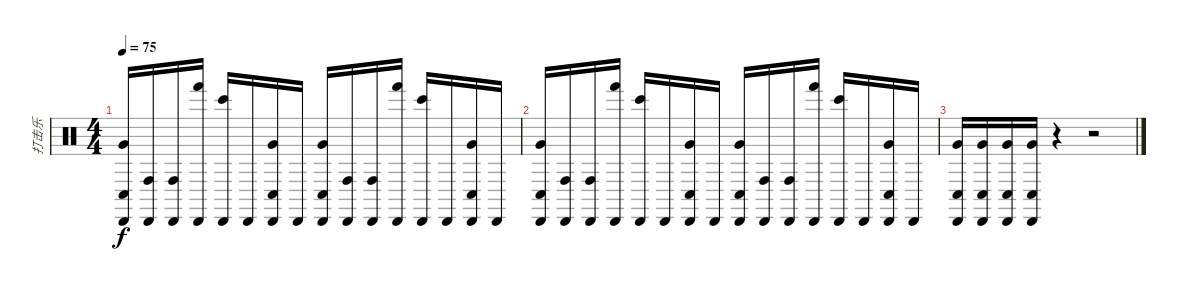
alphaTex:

\track ("打击乐" "打击乐") {instrument percussion}
\staff {score}
\articulation defaults
\ts (4 4)
\tempo 75
\clef neutral
\ks c
("Conga low (hit)" "Very Low Tom (hit)" "Cabasa (hit)").16{dy f} ("Conga high (hit)" "Cabasa (hit)").16 ("Conga high (hit)" "Cabasa (hit)").16 ("Hand (hit)" "Cabasa (hit)").16 ("Bongo High (hit)" "Cabasa (hit)").16 "Cabasa (hit)".16 ("Conga low (hit)" "Very Low Tom (hit)" "Cabasa (hit)").16 "Cabasa (hit)".16 ("Conga low (hit)" "Very Low Tom (hit)" "Cabasa (hit)").16 ("Conga high (hit)" "Cabasa (hit)").16 ("Conga high (hit)" "Cabasa (hit)").16 ("Hand (hit)" "Cabasa (hit)").16 ("Bongo High (hit)" "Cabasa (hit)").16 "Cabasa (hit)".16 ("Conga low (hit)" "Very Low Tom (hit)" "Cabasa (hit)").16 "Cabasa (hit)".16 |
("Conga low (hit)" "Very Low Tom (hit)" "Cabasa (hit)").16 ("Conga high (hit)" "Cabasa (hit)").16 ("Conga high (hit)" "Cabasa (hit)").16 ("Hand (hit)" "Cabasa (hit)").16 ("Bongo High (hit)" "Cabasa (hit)").16 "Cabasa (hit)".16 ("Conga low (hit)" "Very Low Tom (hit)" "Cabasa (hit)").16 "Cabasa (hit)".16 ("Conga low (hit)" "Very Low Tom (hit)" "Cabasa (hit)").16 ("Conga high (hit)" "Cabasa (hit)").16 ("Conga high (hit)" "Cabasa (hit)").16 ("Hand (hit)" "Cabasa (hit)").16 ("Bongo High (hit)" "Cabasa (hit)").16 "Cabasa (hit)".16 ("Conga low (hit)" "Very Low Tom (hit)" "Cabasa (hit)").16 "Cabasa (hit)".16 |
("Conga low (hit)" "Very Low Tom (hit)" "Cabasa (hit)").16 ("Conga low (hit)" "Very Low Tom (hit)" "Cabasa (hit)").16 ("Conga low (hit)" "Very Low Tom (hit)" "Cabasa (hit)").16 ("Conga low (hit)" "Very Low Tom (hit)" "Cabasa (hit)").16 r.4 r.2
